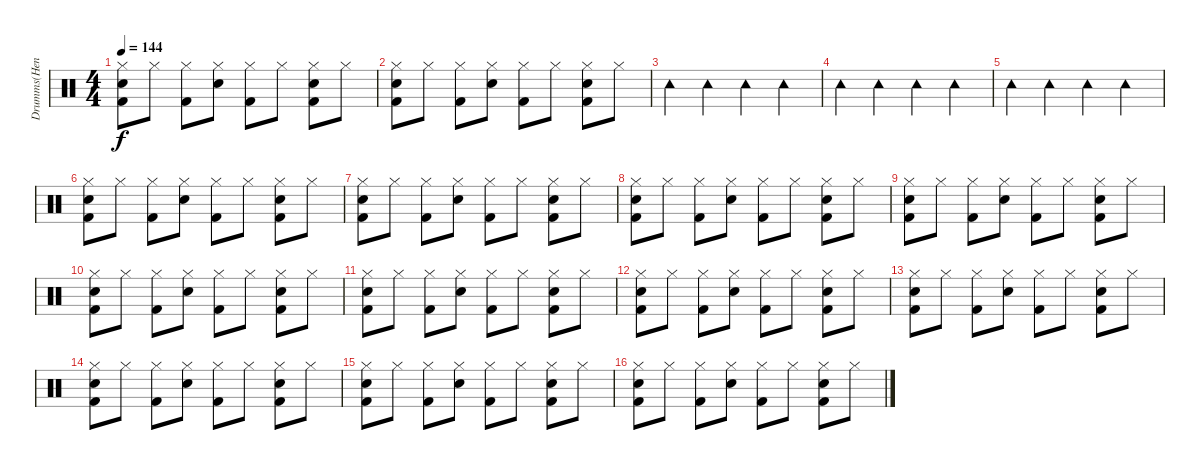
\track ("Drumms(Henrik)" "Drumms(Hen") {instrument percussion}
\staff {score}
\articulation defaults
\ts (4 4)
\tempo 144
\clef neutral
\ks c
("Hi-Hat (closed)" "Kick (hit) 2" "Electric Snare (hit)").8{dy f} "Hi-Hat (closed)".8 ("Hi-Hat (closed)" "Kick (hit) 2").8 ("Hi-Hat (closed)" "Electric Snare (hit)").8 ("Hi-Hat (closed)" "Kick (hit) 2").8 "Hi-Hat (closed)".8 ("Hi-Hat (closed)" "Kick (hit) 2" "Electric Snare (hit)").8 "Hi-Hat (closed)".8 |
("Hi-Hat (closed)" "Kick (hit) 2" "Electric Snare (hit)").8 "Hi-Hat (closed)".8 ("Hi-Hat (closed)" "Kick (hit) 2").8 ("Hi-Hat (closed)" "Electric Snare (hit)").8 ("Hi-Hat (closed)" "Kick (hit) 2").8 "Hi-Hat (closed)".8 ("Hi-Hat (closed)" "Kick (hit) 2" "Electric Snare (hit)").8 "Hi-Hat (closed)".8 |
"Tambourine (hit)".4 "Tambourine (hit)".4 "Tambourine (hit)".4 "Tambourine (hit)".4 |
"Tambourine (hit)".4 "Tambourine (hit)".4 "Tambourine (hit)".4 "Tambourine (hit)".4 |
"Tambourine (hit)".4 "Tambourine (hit)".4 "Tambourine (hit)".4 "Tambourine (hit)".4 |
("Hi-Hat (closed)" "Kick (hit) 2" "Electric Snare (hit)").8 "Hi-Hat (closed)".8 ("Hi-Hat (closed)" "Kick (hit) 2").8 ("Hi-Hat (closed)" "Electric Snare (hit)").8 ("Hi-Hat (closed)" "Kick (hit) 2").8 "Hi-Hat (closed)".8 ("Hi-Hat (closed)" "Kick (hit) 2" "Electric Snare (hit)").8 "Hi-Hat (closed)".8 |
("Hi-Hat (closed)" "Kick (hit) 2" "Electric Snare (hit)").8 "Hi-Hat (closed)".8 ("Hi-Hat (closed)" "Kick (hit) 2").8 ("Hi-Hat (closed)" "Electric Snare (hit)").8 ("Hi-Hat (closed)" "Kick (hit) 2").8 "Hi-Hat (closed)".8 ("Hi-Hat (closed)" "Kick (hit) 2" "Electric Snare (hit)").8 "Hi-Hat (closed)".8 |
("Hi-Hat (closed)" "Kick (hit) 2" "Electric Snare (hit)").8 "Hi-Hat (closed)".8 ("Hi-Hat (closed)" "Kick (hit) 2").8 ("Hi-Hat (closed)" "Electric Snare (hit)").8 ("Hi-Hat (closed)" "Kick (hit) 2").8 "Hi-Hat (closed)".8 ("Hi-Hat (closed)" "Kick (hit) 2" "Electric Snare (hit)").8 "Hi-Hat (closed)".8 |
("Hi-Hat (closed)" "Kick (hit) 2" "Electric Snare (hit)").8 "Hi-Hat (closed)".8 ("Hi-Hat (closed)" "Kick (hit) 2").8 ("Hi-Hat (closed)" "Electric Snare (hit)").8 ("Hi-Hat (closed)" "Kick (hit) 2").8 "Hi-Hat (closed)".8 ("Hi-Hat (closed)" "Kick (hit) 2" "Electric Snare (hit)").8 "Hi-Hat (closed)".8 |
("Hi-Hat (closed)" "Kick (hit) 2" "Electric Snare (hit)").8 "Hi-Hat (closed)".8 ("Hi-Hat (closed)" "Kick (hit) 2").8 ("Hi-Hat (closed)" "Electric Snare (hit)").8 ("Hi-Hat (closed)" "Kick (hit) 2").8 "Hi-Hat (closed)".8 ("Hi-Hat (closed)" "Kick (hit) 2" "Electric Snare (hit)").8 "Hi-Hat (closed)".8 |
("Hi-Hat (closed)" "Kick (hit) 2" "Electric Snare (hit)").8 "Hi-Hat (closed)".8 ("Hi-Hat (closed)" "Kick (hit) 2").8 ("Hi-Hat (closed)" "Electric Snare (hit)").8 ("Hi-Hat (closed)" "Kick (hit) 2").8 "Hi-Hat (closed)".8 ("Hi-Hat (closed)" "Kick (hit) 2" "Electric Snare (hit)").8 "Hi-Hat (closed)".8 |
("Hi-Hat (closed)" "Kick (hit) 2" "Electric Snare (hit)").8 "Hi-Hat (closed)".8 ("Hi-Hat (closed)" "Kick (hit) 2").8 ("Hi-Hat (closed)" "Electric Snare (hit)").8 ("Hi-Hat (closed)" "Kick (hit) 2").8 "Hi-Hat (closed)".8 ("Hi-Hat (closed)" "Kick (hit) 2" "Electric Snare (hit)").8 "Hi-Hat (closed)".8 |
("Hi-Hat (closed)" "Kick (hit) 2" "Electric Snare (hit)").8 "Hi-Hat (closed)".8 ("Hi-Hat (closed)" "Kick (hit) 2").8 ("Hi-Hat (closed)" "Electric Snare (hit)").8 ("Hi-Hat (closed)" "Kick (hit) 2").8 "Hi-Hat (closed)".8 ("Hi-Hat (closed)" "Kick (hit) 2" "Electric Snare (hit)").8 "Hi-Hat (closed)".8 |
("Hi-Hat (closed)" "Kick (hit) 2" "Electric Snare (hit)").8 "Hi-Hat (closed)".8 ("Hi-Hat (closed)" "Kick (hit) 2").8 ("Hi-Hat (closed)" "Electric Snare (hit)").8 ("Hi-Hat (closed)" "Kick (hit) 2").8 "Hi-Hat (closed)".8 ("Hi-Hat (closed)" "Kick (hit) 2" "Electric Snare (hit)").8 "Hi-Hat (closed)".8 |
("Hi-Hat (closed)" "Kick (hit) 2" "Electric Snare (hit)").8 "Hi-Hat (closed)".8 ("Hi-Hat (closed)" "Kick (hit) 2").8 ("Hi-Hat (closed)" "Electric Snare (hit)").8 ("Hi-Hat (closed)" "Kick (hit) 2").8 "Hi-Hat (closed)".8 ("Hi-Hat (closed)" "Kick (hit) 2" "Electric Snare (hit)").8 "Hi-Hat (closed)".8 |
("Hi-Hat (closed)" "Kick (hit) 2" "Electric Snare (hit)").8 "Hi-Hat (closed)".8 ("Hi-Hat (closed)" "Kick (hit) 2").8 ("Hi-Hat (closed)" "Electric Snare (hit)").8 ("Hi-Hat (closed)" "Kick (hit) 2").8 "Hi-Hat (closed)".8 ("Hi-Hat (closed)" "Kick (hit) 2" "Electric Snare (hit)").8 "Hi-Hat (closed)".8
